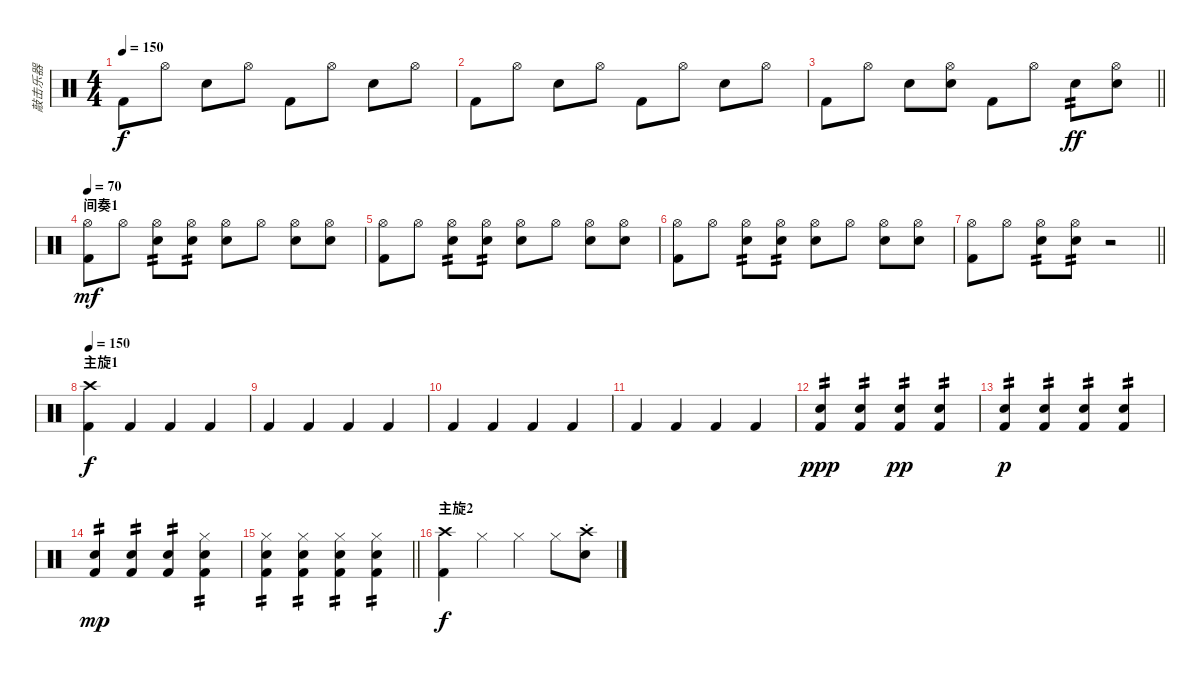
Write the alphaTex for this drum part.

\track ("敲击乐器" "敲击乐器") {instrument percussion}
\staff {score}
\articulation defaults
\ts (4 4)
\tempo 150
\clef neutral
\ks c "Kick (hit) 2".8{dy f} "Hi-Hat (open)".8 "Snare (hit) 2".8 "Hi-Hat (open)".8 "Kick (hit) 2".8 "Hi-Hat (open)".8 "Snare (hit) 2".8 "Hi-Hat (open)".8
|
"Kick (hit) 2".8 "Hi-Hat (open)".8 "Snare (hit) 2".8 "Hi-Hat (open)".8 "Kick (hit) 2".8 "Hi-Hat (open)".8 "Snare (hit) 2".8 "Hi-Hat (open)".8 |
\barLineRight lightlight "Kick (hit) 2".8 "Hi-Hat (open)".8 "Snare (hit) 2".8
("Hi-Hat (open)" "Snare (hit) 2").8 "Kick (hit) 2".8 "Hi-Hat (open)".8 "Snare (hit) 2".8{tp 2 dy ff} ("Hi-Hat (open)" "Snare (hit) 2").8 |
\section ("" "间奏1")
\tempo 70
("Hi-Hat (open)" "Kick (hit) 2").8{dy mf} "Hi-Hat (open)".8 ("Hi-Hat (open)" "Snare (hit) 2").8{tp 2} ("Hi-Hat (open)" "Snare (hit) 2").8{tp 2} ("Hi-Hat (open)" "Snare (hit) 2").8 "Hi-Hat (open)".8 ("Hi-Hat (open)" "Snare (hit) 2").8 ("Hi-Hat (open)" "Snare (hit) 2").8 |
("Hi-Hat (open)" "Kick (hit) 2").8 "Hi-Hat (open)".8 ("Hi-Hat (open)" "Snare (hit) 2").8{tp 2} ("Hi-Hat (open)" "Snare (hit) 2").8{tp 2} ("Hi-Hat (open)" "Snare (hit) 2").8 "Hi-Hat (open)".8 ("Hi-Hat (open)" "Snare (hit) 2").8 ("Hi-Hat (open)" "Snare (hit) 2").8 |
("Hi-Hat (open)" "Kick (hit) 2").8 "Hi-Hat (open)".8 ("Hi-Hat (open)" "Snare (hit) 2").8{tp 2} ("Hi-Hat (open)" "Snare (hit) 2").8{tp 2} ("Hi-Hat (open)" "Snare (hit) 2").8 "Hi-Hat (open)".8 ("Hi-Hat (open)" "Snare (hit) 2").8 ("Hi-Hat (open)" "Snare (hit) 2").8 |
\barLineRight lightlight
("Hi-Hat (open)" "Kick (hit) 2").8 "Hi-Hat (open)".8 ("Hi-Hat (open)" "Snare (hit) 2").8{tp 2} ("Hi-Hat (open)" "Snare (hit) 2").8{tp 2} r.2 |
\section ("" "主旋1")
\tempo 150
("Crash high (hit)" "Kick (hit) 2").4{dy f} "Kick (hit) 2".4 "Kick (hit) 2".4 "Kick (hit) 2".4 |
"Kick (hit) 2".4 "Kick (hit) 2".4 "Kick (hit) 2".4 "Kick (hit) 2".4 |
"Kick (hit) 2".4 "Kick (hit) 2".4 "Kick (hit) 2".4 "Kick (hit) 2".4 |
"Kick (hit) 2".4 "Kick (hit) 2".4 "Kick (hit) 2".4 "Kick (hit) 2".4 |
("Snare (hit) 2" "Kick (hit) 2").4{tp 2 dy ppp} ("Snare (hit) 2" "Kick (hit) 2").4{tp 2} ("Snare (hit) 2" "Kick (hit) 2").4{tp 2 dy pp} ("Snare (hit) 2" "Kick (hit) 2").4{tp 2} |
("Snare (hit) 2" "Kick (hit) 2").4{tp 2 dy p} ("Snare (hit) 2" "Kick (hit) 2").4{tp 2} ("Snare (hit) 2" "Kick (hit) 2").4{tp 2} ("Snare (hit) 2" "Kick (hit) 2").4{tp 2} |
("Snare (hit) 2" "Kick (hit) 2").4{tp 2 dy mp} ("Snare (hit) 2" "Kick (hit) 2").4{tp 2} ("Snare (hit) 2" "Kick (hit) 2").4{tp 2} ("Hi-Hat (closed)" "Snare (hit) 2" "Kick (hit) 2").4{tp 2} |
\barLineRight lightlight
("Hi-Hat (closed)" "Snare (hit) 2" "Kick (hit) 2").4{tp 2} ("Hi-Hat (closed)" "Snare (hit) 2" "Kick (hit) 2").4{tp 2} ("Hi-Hat (closed)" "Snare (hit) 2" "Kick (hit) 2").4{tp 2} ("Hi-Hat (closed)" "Snare (hit) 2" "Kick (hit) 2").4{tp 2} |
\section ("" "主旋2")
("Crash high (hit)" "Kick (hit) 2").4{dy f} "Hi-Hat (closed)".4 "Hi-Hat (closed)".4 "Hi-Hat (closed)".8 ("Crash high (hit)"{st} "Snare (hit) 2").8
